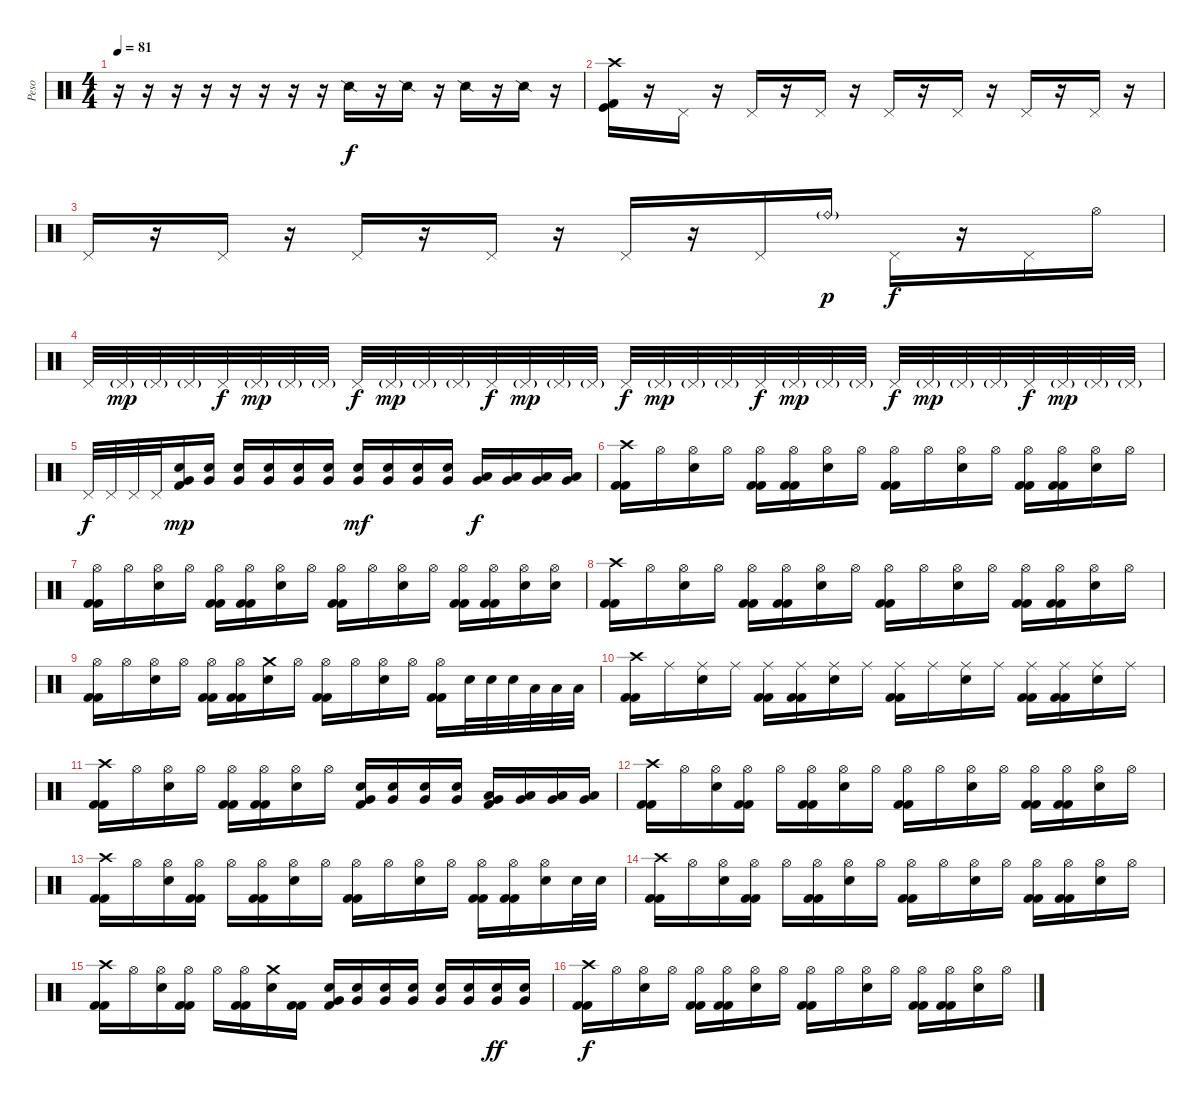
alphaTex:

\track ("Peso" "Peso") {instrument percussion}
\staff {score}
\articulation defaults
\ts (4 4)
\tempo 81
\clef neutral
\ks c
r.16{dy f} r.16 r.16 r.16 r.16 r.16 r.16 r.16 "Snare (side stick) 2".16 r.16 "Snare (side stick) 2".16 r.16 "Snare (side stick) 2".16 r.16 "Snare (side stick) 2".16 r.16 |
("Crash high (hit)" "Kick (hit)" "Kick (hit) 2").16 r.16 "Pedal Hi-Hat (hit)".16 r.16 "Pedal Hi-Hat (hit)".16 r.16 "Pedal Hi-Hat (hit)".16 r.16 "Pedal Hi-Hat (hit)".16 r.16 "Pedal Hi-Hat (hit)".16 r.16 "Pedal Hi-Hat (hit)".16 r.16 "Pedal Hi-Hat (hit)".16 r.16 |
"Pedal Hi-Hat (hit)".16 r.16 "Pedal Hi-Hat (hit)".16 r.16 "Pedal Hi-Hat (hit)".16 r.16 "Pedal Hi-Hat (hit)".16 r.16 "Pedal Hi-Hat (hit)".16 r.16 "Pedal Hi-Hat (hit)".16 "Ride (bell)"{g}.16{dy p} "Pedal Hi-Hat (hit)".16{dy f} r.16 "Pedal Hi-Hat (hit)".16 "Hi-Hat (open)".16 |
"Pedal Hi-Hat (hit)".32 "Pedal Hi-Hat (hit)"{g}.32{dy mp} "Pedal Hi-Hat (hit)"{g}.32 "Pedal Hi-Hat (hit)"{g}.32 "Pedal Hi-Hat (hit)".32{dy f} "Pedal Hi-Hat (hit)"{g}.32{dy mp} "Pedal Hi-Hat (hit)"{g}.32 "Pedal Hi-Hat (hit)"{g}.32 "Pedal Hi-Hat (hit)".32{dy f} "Pedal Hi-Hat (hit)"{g}.32{dy mp} "Pedal Hi-Hat (hit)"{g}.32 "Pedal Hi-Hat (hit)"{g}.32 "Pedal Hi-Hat (hit)".32{dy f} "Pedal Hi-Hat (hit)"{g}.32{dy mp} "Pedal Hi-Hat (hit)"{g}.32 "Pedal Hi-Hat (hit)"{g}.32 "Pedal Hi-Hat (hit)".32{dy f} "Pedal Hi-Hat (hit)"{g}.32{dy mp} "Pedal Hi-Hat (hit)"{g}.32 "Pedal Hi-Hat (hit)"{g}.32 "Pedal Hi-Hat (hit)".32{dy f} "Pedal Hi-Hat (hit)"{g}.32{dy mp} "Pedal Hi-Hat (hit)"{g}.32 "Pedal Hi-Hat (hit)"{g}.32 "Pedal Hi-Hat (hit)".32{dy f} "Pedal Hi-Hat (hit)"{g}.32{dy mp} "Pedal Hi-Hat (hit)"{g}.32 "Pedal Hi-Hat (hit)"{g}.32 "Pedal Hi-Hat (hit)".32{dy f} "Pedal Hi-Hat (hit)"{g}.32{dy mp} "Pedal Hi-Hat (hit)"{g}.32 "Pedal Hi-Hat (hit)"{g}.32 |
"Pedal Hi-Hat (hit)".32{dy f} "Pedal Hi-Hat (hit)".32 "Pedal Hi-Hat (hit)".32 "Pedal Hi-Hat (hit)".32 ("Electric Snare (hit)" "Very Low Tom (hit)" "Kick (hit) 2").16{dy mp} ("Electric Snare (hit)" "Very Low Tom (hit)").16 ("Electric Snare (hit)" "Very Low Tom (hit)").16 ("Electric Snare (hit)" "Very Low Tom (hit)").16 ("Electric Snare (hit)" "Very Low Tom (hit)").16 ("Electric Snare (hit)" "Very Low Tom (hit)").16 ("Electric Snare (hit)" "Very Low Tom (hit)").16{dy mf} ("Electric Snare (hit)" "Very Low Tom (hit)").16 ("Electric Snare (hit)" "Very Low Tom (hit)").16 ("Electric Snare (hit)" "Very Low Tom (hit)").16 ("Low Tom (hit)" "Very Low Tom (hit)").16{dy f} ("Low Tom (hit)" "Very Low Tom (hit)").16 ("Low Tom (hit)" "Very Low Tom (hit)").16 ("Low Tom (hit)" "Very Low Tom (hit)").16 |
("Crash high (hit)" "Kick (hit) 2" "Kick (hit) 2").16 "Hi-Hat (open)".16 ("Hi-Hat (open)" "Electric Snare (hit)").16 "Hi-Hat (open)".16 ("Hi-Hat (open)" "Kick (hit) 2" "Kick (hit) 2").16 ("Hi-Hat (open)" "Kick (hit) 2" "Kick (hit) 2").16 ("Hi-Hat (open)" "Electric Snare (hit)").16 "Hi-Hat (open)".16 ("Hi-Hat (open)" "Kick (hit) 2" "Kick (hit) 2").16 "Hi-Hat (open)".16 ("Hi-Hat (open)" "Electric Snare (hit)").16 "Hi-Hat (open)".16 ("Hi-Hat (open)" "Kick (hit) 2" "Kick (hit) 2").16 ("Hi-Hat (open)" "Kick (hit) 2" "Kick (hit) 2").16 ("Hi-Hat (open)" "Electric Snare (hit)").16 "Hi-Hat (open)".16 |
("Hi-Hat (open)" "Kick (hit) 2" "Kick (hit) 2").16 "Hi-Hat (open)".16 ("Hi-Hat (open)" "Electric Snare (hit)").16 "Hi-Hat (open)".16 ("Hi-Hat (open)" "Kick (hit) 2" "Kick (hit) 2").16 ("Hi-Hat (open)" "Kick (hit) 2" "Kick (hit) 2").16 ("Hi-Hat (open)" "Electric Snare (hit)").16 "Hi-Hat (open)".16 ("Hi-Hat (open)" "Kick (hit) 2" "Kick (hit) 2").16 "Hi-Hat (open)".16 ("Hi-Hat (open)" "Electric Snare (hit)").16 "Hi-Hat (open)".16 ("Hi-Hat (open)" "Kick (hit) 2" "Kick (hit) 2").16 ("Hi-Hat (open)" "Kick (hit) 2" "Kick (hit) 2").16 ("Hi-Hat (open)" "Electric Snare (hit)").16 ("Hi-Hat (open)" "Electric Snare (hit)").16 |
("Crash high (hit)" "Kick (hit) 2" "Kick (hit) 2").16 "Hi-Hat (open)".16 ("Hi-Hat (open)" "Electric Snare (hit)").16 "Hi-Hat (open)".16 ("Hi-Hat (open)" "Kick (hit) 2" "Kick (hit) 2").16 ("Hi-Hat (open)" "Kick (hit) 2" "Kick (hit) 2").16 ("Hi-Hat (open)" "Electric Snare (hit)").16 "Hi-Hat (open)".16 ("Hi-Hat (open)" "Kick (hit) 2" "Kick (hit) 2").16 "Hi-Hat (open)".16 ("Hi-Hat (open)" "Electric Snare (hit)").16 "Hi-Hat (open)".16 ("Hi-Hat (open)" "Kick (hit) 2" "Kick (hit) 2").16 ("Hi-Hat (open)" "Kick (hit) 2" "Kick (hit) 2").16 ("Hi-Hat (open)" "Electric Snare (hit)").16 "Hi-Hat (open)".16 |
("Hi-Hat (open)" "Kick (hit) 2" "Kick (hit) 2").16 "Hi-Hat (open)".16 ("Hi-Hat (open)" "Electric Snare (hit)").16 "Hi-Hat (open)".16 ("Hi-Hat (open)" "Kick (hit) 2" "Kick (hit) 2").16 ("Hi-Hat (open)" "Kick (hit) 2" "Kick (hit) 2").16 ("Crash medium (hit)" "Electric Snare (hit)").16 "Hi-Hat (open)".16 ("Hi-Hat (open)" "Kick (hit) 2" "Kick (hit) 2").16 "Hi-Hat (open)".16 ("Hi-Hat (open)" "Electric Snare (hit)").16 "Hi-Hat (open)".16 ("Hi-Hat (open)" "Kick (hit) 2" "Kick (hit) 2").16 "Electric Snare (hit)".32 "Electric Snare (hit)".32 "Electric Snare (hit)".32 "Low Tom (hit)".32 "Low Tom (hit)".32 "Low Tom (hit)".32 |
("Crash high (hit)" "Kick (hit) 2" "Kick (hit) 2").16 "Ride (middle)".16 ("Ride (middle)" "Electric Snare (hit)").16 "Ride (middle)".16 ("Ride (middle)" "Kick (hit) 2" "Kick (hit) 2").16 ("Ride (middle)" "Kick (hit) 2" "Kick (hit) 2").16 ("Ride (middle)" "Electric Snare (hit)").16 "Ride (middle)".16 ("Ride (middle)" "Kick (hit) 2" "Kick (hit) 2").16 "Ride (middle)".16 ("Ride (middle)" "Electric Snare (hit)").16 "Ride (middle)".16 ("Ride (middle)" "Kick (hit) 2" "Kick (hit) 2").16 ("Ride (middle)" "Kick (hit) 2" "Kick (hit) 2").16 ("Ride (middle)" "Electric Snare (hit)").16 "Ride (middle)".16 |
("Crash high (hit)" "Kick (hit) 2" "Kick (hit) 2").16 "Hi-Hat (open)".16 ("Hi-Hat (open)" "Electric Snare (hit)").16 "Hi-Hat (open)".16 ("Hi-Hat (open)" "Kick (hit) 2" "Kick (hit) 2").16 ("Hi-Hat (open)" "Kick (hit) 2" "Kick (hit) 2").16 ("Hi-Hat (open)" "Electric Snare (hit)").16 "Hi-Hat (open)".16 ("Electric Snare (hit)" "Very Low Tom (hit)" "Kick (hit) 2").16 ("Electric Snare (hit)" "Very Low Tom (hit)").16 ("Electric Snare (hit)" "Very Low Tom (hit)").16 ("Electric Snare (hit)" "Very Low Tom (hit)").16 ("Low Tom (hit)" "Very Low Tom (hit)" "Kick (hit) 2").16 ("Low Tom (hit)" "Very Low Tom (hit)").16 ("Low Tom (hit)" "Very Low Tom (hit)").16 ("Low Tom (hit)" "Very Low Tom (hit)").16 |
("Crash high (hit)" "Kick (hit) 2" "Kick (hit) 2").16 "Hi-Hat (open)".16 ("Hi-Hat (open)" "Electric Snare (hit)").16 ("Hi-Hat (open)" "Kick (hit) 2" "Kick (hit) 2").16 "Hi-Hat (open)".16 ("Hi-Hat (open)" "Kick (hit) 2" "Kick (hit) 2").16 ("Hi-Hat (open)" "Electric Snare (hit)").16 "Hi-Hat (open)".16 ("Hi-Hat (open)" "Kick (hit) 2" "Kick (hit) 2").16 "Hi-Hat (open)".16 ("Hi-Hat (open)" "Electric Snare (hit)").16 "Hi-Hat (open)".16 ("Hi-Hat (open)" "Kick (hit) 2" "Kick (hit) 2").16 ("Hi-Hat (open)" "Kick (hit) 2" "Kick (hit) 2").16 ("Hi-Hat (open)" "Electric Snare (hit)").16 "Hi-Hat (open)".16 |
("Crash high (hit)" "Kick (hit) 2" "Kick (hit) 2").16 "Hi-Hat (open)".16 ("Hi-Hat (open)" "Electric Snare (hit)").16 ("Hi-Hat (open)" "Kick (hit) 2" "Kick (hit) 2").16 "Hi-Hat (open)".16 ("Hi-Hat (open)" "Kick (hit) 2" "Kick (hit) 2").16 ("Hi-Hat (open)" "Electric Snare (hit)").16 "Hi-Hat (open)".16 ("Hi-Hat (open)" "Kick (hit) 2" "Kick (hit) 2").16 "Hi-Hat (open)".16 ("Hi-Hat (open)" "Electric Snare (hit)").16 "Hi-Hat (open)".16 ("Hi-Hat (open)" "Kick (hit) 2" "Kick (hit) 2").16 ("Hi-Hat (open)" "Kick (hit) 2" "Kick (hit) 2").16 ("Hi-Hat (open)" "Electric Snare (hit)").16 "Electric Snare (hit)".32 "Electric Snare (hit)".32 |
("Crash high (hit)" "Kick (hit) 2" "Kick (hit) 2").16 "Hi-Hat (open)".16 ("Hi-Hat (open)" "Electric Snare (hit)").16 ("Hi-Hat (open)" "Kick (hit) 2" "Kick (hit) 2").16 "Hi-Hat (open)".16 ("Hi-Hat (open)" "Kick (hit) 2" "Kick (hit) 2").16 ("Hi-Hat (open)" "Electric Snare (hit)").16 "Hi-Hat (open)".16 ("Hi-Hat (open)" "Kick (hit) 2" "Kick (hit) 2").16 "Hi-Hat (open)".16 ("Hi-Hat (open)" "Electric Snare (hit)").16 "Hi-Hat (open)".16 ("Hi-Hat (open)" "Kick (hit) 2" "Kick (hit) 2").16 ("Hi-Hat (open)" "Kick (hit) 2" "Kick (hit) 2").16 ("Hi-Hat (open)" "Electric Snare (hit)").16 "Hi-Hat (open)".16 |
("Crash high (hit)" "Kick (hit) 2" "Kick (hit) 2").16 "Hi-Hat (open)".16 ("Hi-Hat (open)" "Electric Snare (hit)").16 ("Hi-Hat (open)" "Kick (hit) 2" "Kick (hit) 2").16 "Hi-Hat (open)".16 ("Hi-Hat (open)" "Kick (hit) 2" "Kick (hit) 2").16 ("Crash medium (hit)" "Electric Snare (hit)").16 ("Kick (hit) 2" "Kick (hit) 2").16 ("Electric Snare (hit)" "Very Low Tom (hit)" "Kick (hit) 2").16 ("Electric Snare (hit)" "Very Low Tom (hit)").16 ("Electric Snare (hit)" "Very Low Tom (hit)").16 ("Electric Snare (hit)" "Very Low Tom (hit)").16 ("Electric Snare (hit)" "Very Low Tom (hit)").16 ("Electric Snare (hit)" "Very Low Tom (hit)").16 ("Electric Snare (hit)" "Very Low Tom (hit)").16{dy ff} ("Electric Snare (hit)" "Very Low Tom (hit)").16 |
("Crash high (hit)" "Kick (hit) 2" "Kick (hit) 2").16{dy f} "Hi-Hat (open)".16 ("Hi-Hat (open)" "Electric Snare (hit)").16 "Hi-Hat (open)".16 ("Hi-Hat (open)" "Kick (hit) 2" "Kick (hit) 2").16 ("Hi-Hat (open)" "Kick (hit) 2" "Kick (hit) 2").16 ("Hi-Hat (open)" "Electric Snare (hit)").16 "Hi-Hat (open)".16 ("Hi-Hat (open)" "Kick (hit) 2" "Kick (hit) 2").16 "Hi-Hat (open)".16 ("Hi-Hat (open)" "Electric Snare (hit)").16 "Hi-Hat (open)".16 ("Hi-Hat (open)" "Kick (hit) 2" "Kick (hit) 2").16 ("Hi-Hat (open)" "Kick (hit) 2" "Kick (hit) 2").16 ("Hi-Hat (open)" "Electric Snare (hit)").16 "Hi-Hat (open)".16
